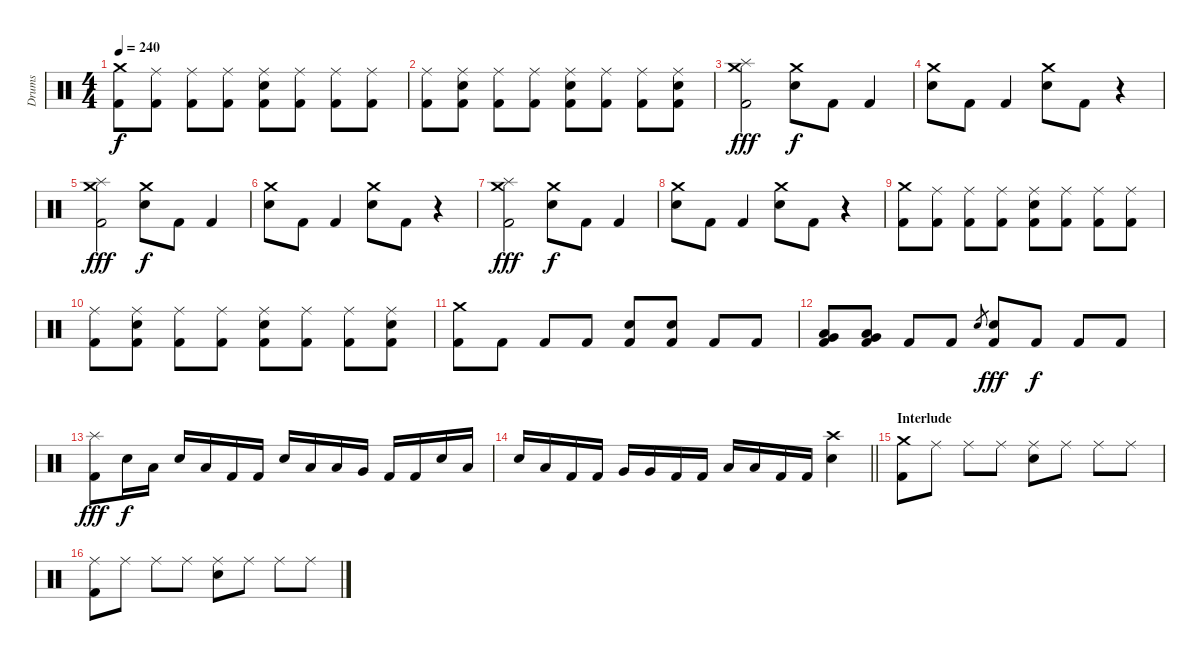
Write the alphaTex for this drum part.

\track ("Drums" "Drums") {instrument percussion}
\staff {score}
\articulation defaults
\ts (4 4)
\tempo 240
\clef neutral
\ks c
("Crash medium (hit)" "Kick (hit) 2").8{dy f} ("Ride (middle)" "Kick (hit) 2").8 ("Ride (middle)" "Kick (hit) 2").8 ("Ride (middle)" "Kick (hit) 2").8 ("Ride (middle)" "Electric Snare (hit)" "Kick (hit) 2").8 ("Ride (middle)" "Kick (hit) 2").8 ("Ride (middle)" "Kick (hit) 2").8 ("Ride (middle)" "Kick (hit) 2").8 |
("Ride (middle)" "Kick (hit) 2").8 ("Ride (middle)" "Electric Snare (hit)" "Kick (hit) 2").8 ("Ride (middle)" "Kick (hit) 2").8 ("Ride (middle)" "Kick (hit) 2").8 ("Ride (middle)" "Electric Snare (hit)" "Kick (hit) 2").8 ("Ride (middle)" "Kick (hit) 2").8 ("Ride (middle)" "Kick (hit) 2").8 ("Ride (middle)" "Electric Snare (hit)" "Kick (hit) 2").8 |
("Splash (hit)" "Crash medium (hit)" "Kick (hit) 2").2{dy fff} ("Crash medium (hit)" "Electric Snare (hit)").8{dy f} "Kick (hit) 2".8 "Kick (hit) 2".4 |
("Crash medium (hit)" "Electric Snare (hit)").8 "Kick (hit) 2".8 "Kick (hit) 2".4 ("Crash medium (hit)" "Electric Snare (hit)").8 "Kick (hit) 2".8 r.4 |
("Splash (hit)" "Crash medium (hit)" "Kick (hit) 2").2{dy fff} ("Crash medium (hit)" "Electric Snare (hit)").8{dy f} "Kick (hit) 2".8 "Kick (hit) 2".4 |
("Crash medium (hit)" "Electric Snare (hit)").8 "Kick (hit) 2".8 "Kick (hit) 2".4 ("Crash medium (hit)" "Electric Snare (hit)").8 "Kick (hit) 2".8 r.4 |
("Splash (hit)" "Crash medium (hit)" "Kick (hit) 2").2{dy fff} ("Crash medium (hit)" "Electric Snare (hit)").8{dy f} "Kick (hit) 2".8 "Kick (hit) 2".4 |
("Crash medium (hit)" "Electric Snare (hit)").8 "Kick (hit) 2".8 "Kick (hit) 2".4 ("Crash medium (hit)" "Electric Snare (hit)").8 "Kick (hit) 2".8 r.4 |
("Crash medium (hit)" "Kick (hit) 2").8 ("Ride (middle)" "Kick (hit) 2").8 ("Ride (middle)" "Kick (hit) 2").8 ("Ride (middle)" "Kick (hit) 2").8 ("Ride (middle)" "Electric Snare (hit)" "Kick (hit) 2").8 ("Ride (middle)" "Kick (hit) 2").8 ("Ride (middle)" "Kick (hit) 2").8 ("Ride (middle)" "Kick (hit) 2").8 |
("Ride (middle)" "Kick (hit) 2").8 ("Ride (middle)" "Electric Snare (hit)" "Kick (hit) 2").8 ("Ride (middle)" "Kick (hit) 2").8 ("Ride (middle)" "Kick (hit) 2").8 ("Ride (middle)" "Electric Snare (hit)" "Kick (hit) 2").8 ("Ride (middle)" "Kick (hit) 2").8 ("Ride (middle)" "Kick (hit) 2").8 ("Ride (middle)" "Electric Snare (hit)" "Kick (hit) 2").8 |
("Crash medium (hit)" "Kick (hit) 2").8 "Kick (hit) 2".8 "Kick (hit) 2".8 "Kick (hit) 2".8 ("Electric Snare (hit)" "Kick (hit) 2").8 ("Electric Snare (hit)" "Kick (hit) 2").8 "Kick (hit) 2".8 "Kick (hit) 2".8 |
("Very Low Tom (hit)" "Low Tom (hit)" "Kick (hit) 2").8 ("Very Low Tom (hit)" "Low Tom (hit)" "Kick (hit) 2").8 "Kick (hit) 2".8 "Kick (hit) 2".8 "Electric Snare (hit)".8{gr} ("Electric Snare (hit)" "Kick (hit) 2").8{dy fff} "Kick (hit) 2".8{dy f} "Kick (hit) 2".8 "Kick (hit) 2".8 |
("Splash (hit)" "Kick (hit) 2").8{dy fff} "Electric Snare (hit)".16{dy f} "Low Tom (hit)".16 "Electric Snare (hit)".16 "Low Tom (hit)".16 "Kick (hit) 2".16 "Kick (hit) 2".16 "Electric Snare (hit)".16 "Low Tom (hit)".16 "Low Tom (hit)".16 "Very Low Tom (hit)".16 "Kick (hit) 2".16 "Kick (hit) 2".16 "Electric Snare (hit)".16 "Low Tom (hit)".16 |
\barLineRight lightlight "Electric Snare (hit)".16 "Low Tom (hit)".16 "Kick (hit) 2".16 "Kick (hit) 2".16 "Very Low Tom (hit)".16 "Very Low Tom (hit)".16 "Kick (hit) 2".16 "Kick (hit) 2".16 "Low Floor Tom (hit)".16 "Low Floor Tom (hit)".16 "Kick (hit) 2".16 "Kick (hit) 2".16
("Crash high (hit)" "Electric Snare (hit)").4 |
\section ("" "Interlude")
("Crash medium (hit)" "Kick (hit) 2").8 "Ride (middle)".8 "Ride (middle)".8 "Ride (middle)".8 ("Ride (middle)" "Electric Snare (hit)").8 "Ride (middle)".8 "Ride (middle)".8 "Ride (middle)".8 |
("Ride (middle)" "Kick (hit) 2").8 "Ride (middle)".8 "Ride (middle)".8 "Ride (middle)".8 ("Ride (middle)" "Electric Snare (hit)").8 "Ride (middle)".8 "Ride (middle)".8 "Ride (middle)".8
